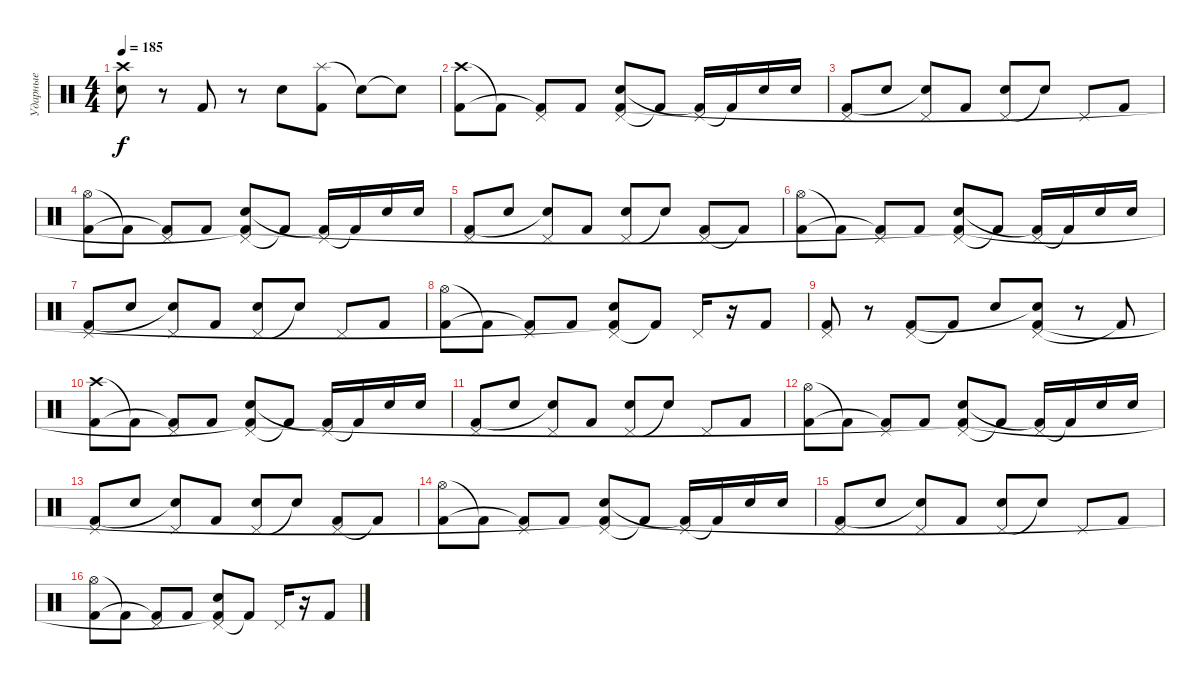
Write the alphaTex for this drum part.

\track ("Ударные" "Ударные") {instrument percussion}
\staff {score}
\articulation defaults
\ts (4 4)
\tempo 185
\clef neutral
\ks c
("Crash high (hit)" "Electric Snare (hit)").8{dy f} r.8 "Kick (hit) 2".8 r.8 "Electric Snare (hit)".8 ("Splash (hit)" "Kick (hit) 2").8 "Snare (hit)"{t}.8 "Snare (hit)"{t}.8 |
("Crash high (hit)" "Kick (hit) 2").8 "Kick (hit) 2"{t}.8 ("Pedal Hi-Hat (hit)" "Kick (hit) 2"{t}).8 "Kick (hit) 2".8 ("Pedal Hi-Hat (hit)" "Electric Snare (hit)" "Kick (hit) 2").8 "Kick (hit) 2"{t}.8 ("Pedal Hi-Hat (hit)" "Kick (hit) 2"{t}).16 "Kick (hit) 2"{t}.16 "Electric Snare (hit)".16 "Electric Snare (hit)".16 |
("Pedal Hi-Hat (hit)" "Kick (hit) 2").8 "Electric Snare (hit)".8 ("Pedal Hi-Hat (hit)" "Snare (hit)"{t}).8 "Kick (hit) 2".8 ("Pedal Hi-Hat (hit)" "Electric Snare (hit)").8 "Electric Snare (hit)"{t}.8 "Pedal Hi-Hat (hit)".8 "Kick (hit) 2".8 |
("Hi-Hat (open)" "Kick (hit) 2").8 "Kick (hit) 2"{t}.8 ("Pedal Hi-Hat (hit)" "Kick (hit) 2"{t}).8 "Kick (hit) 2".8 ("Pedal Hi-Hat (hit)" "Electric Snare (hit)" "Kick (hit) 2"{t}).8 "Kick (hit) 2"{t}.8 ("Pedal Hi-Hat (hit)" "Kick (hit) 2"{t}).16 "Kick (hit) 2"{t}.16 "Electric Snare (hit)".16 "Electric Snare (hit)".16 |
("Pedal Hi-Hat (hit)" "Kick (hit) 2").8 "Electric Snare (hit)".8 ("Pedal Hi-Hat (hit)" "Snare (hit)"{t}).8 "Kick (hit) 2".8 ("Pedal Hi-Hat (hit)" "Electric Snare (hit)").8 "Electric Snare (hit)"{t}.8 ("Pedal Hi-Hat (hit)" "Kick (hit) 2").8 "Kick (hit) 2"{t}.8 |
("Hi-Hat (open)" "Kick (hit) 2").8 "Kick (hit) 2"{t}.8 ("Pedal Hi-Hat (hit)" "Kick (hit) 2"{t}).8 "Kick (hit) 2".8 ("Pedal Hi-Hat (hit)" "Electric Snare (hit)" "Kick (hit) 2"{t}).8 "Kick (hit) 2"{t}.8 ("Pedal Hi-Hat (hit)" "Kick (hit) 2"{t}).16 "Kick (hit) 2"{t}.16 "Electric Snare (hit)".16 "Electric Snare (hit)".16 |
("Pedal Hi-Hat (hit)" "Kick (hit) 2").8 "Electric Snare (hit)".8 ("Pedal Hi-Hat (hit)" "Snare (hit)"{t}).8 "Kick (hit) 2".8 ("Pedal Hi-Hat (hit)" "Electric Snare (hit)").8 "Electric Snare (hit)"{t}.8 "Pedal Hi-Hat (hit)".8 "Kick (hit) 2".8 |
("Hi-Hat (open)" "Kick (hit) 2").8 "Kick (hit) 2"{t}.8 ("Pedal Hi-Hat (hit)" "Kick (hit) 2"{t}).8 "Kick (hit) 2".8 ("Pedal Hi-Hat (hit)" "Electric Snare (hit)" "Kick (hit) 2"{t}).8 "Kick (hit) 2"{t}.8 "Pedal Hi-Hat (hit)".16 r.16 "Kick (hit) 2".8 |
("Pedal Hi-Hat (hit)" "Kick (hit) 2").8 r.8 ("Pedal Hi-Hat (hit)" "Kick (hit) 2").8 "Kick (hit) 2"{t}.8 "Electric Snare (hit)".8 ("Pedal Hi-Hat (hit)" "Electric Snare (hit)"{t} "Kick (hit) 2").8 r.8 "Kick (hit) 2"{t}.8 |
("Crash high (hit)" "Kick (hit) 2").8 "Kick (hit) 2"{t}.8 ("Pedal Hi-Hat (hit)" "Kick (hit) 2"{t}).8 "Kick (hit) 2".8 ("Pedal Hi-Hat (hit)" "Electric Snare (hit)" "Kick (hit) 2"{t}).8 "Kick (hit) 2"{t}.8 ("Pedal Hi-Hat (hit)" "Kick (hit) 2"{t}).16 "Kick (hit) 2"{t}.16 "Electric Snare (hit)".16 "Electric Snare (hit)".16 |
("Pedal Hi-Hat (hit)" "Kick (hit) 2").8 "Electric Snare (hit)".8 ("Pedal Hi-Hat (hit)" "Snare (hit)"{t}).8 "Kick (hit) 2".8 ("Pedal Hi-Hat (hit)" "Electric Snare (hit)").8 "Electric Snare (hit)"{t}.8 "Pedal Hi-Hat (hit)".8 "Kick (hit) 2".8 |
("Hi-Hat (open)" "Kick (hit) 2").8 "Kick (hit) 2"{t}.8 ("Pedal Hi-Hat (hit)" "Kick (hit) 2"{t}).8 "Kick (hit) 2".8 ("Pedal Hi-Hat (hit)" "Electric Snare (hit)" "Kick (hit) 2"{t}).8 "Kick (hit) 2"{t}.8 ("Pedal Hi-Hat (hit)" "Kick (hit) 2"{t}).16 "Kick (hit) 2"{t}.16 "Electric Snare (hit)".16 "Electric Snare (hit)".16 |
("Pedal Hi-Hat (hit)" "Kick (hit) 2").8 "Electric Snare (hit)".8 ("Pedal Hi-Hat (hit)" "Snare (hit)"{t}).8 "Kick (hit) 2".8 ("Pedal Hi-Hat (hit)" "Electric Snare (hit)").8 "Electric Snare (hit)"{t}.8 ("Pedal Hi-Hat (hit)" "Kick (hit) 2").8 "Kick (hit) 2"{t}.8 |
("Hi-Hat (open)" "Kick (hit) 2").8 "Kick (hit) 2"{t}.8 ("Pedal Hi-Hat (hit)" "Kick (hit) 2"{t}).8 "Kick (hit) 2".8 ("Pedal Hi-Hat (hit)" "Electric Snare (hit)" "Kick (hit) 2"{t}).8 "Kick (hit) 2"{t}.8 ("Pedal Hi-Hat (hit)" "Kick (hit) 2"{t}).16 "Kick (hit) 2"{t}.16 "Electric Snare (hit)".16 "Electric Snare (hit)".16 |
("Pedal Hi-Hat (hit)" "Kick (hit) 2").8 "Electric Snare (hit)".8 ("Pedal Hi-Hat (hit)" "Snare (hit)"{t}).8 "Kick (hit) 2".8 ("Pedal Hi-Hat (hit)" "Electric Snare (hit)").8 "Electric Snare (hit)"{t}.8 "Pedal Hi-Hat (hit)".8 "Kick (hit) 2".8 |
("Hi-Hat (open)" "Kick (hit) 2").8 "Kick (hit) 2"{t}.8 ("Pedal Hi-Hat (hit)" "Kick (hit) 2"{t}).8 "Kick (hit) 2".8 ("Pedal Hi-Hat (hit)" "Electric Snare (hit)" "Kick (hit) 2"{t}).8 "Kick (hit) 2"{t}.8 "Pedal Hi-Hat (hit)".16 r.16 "Kick (hit) 2".8
